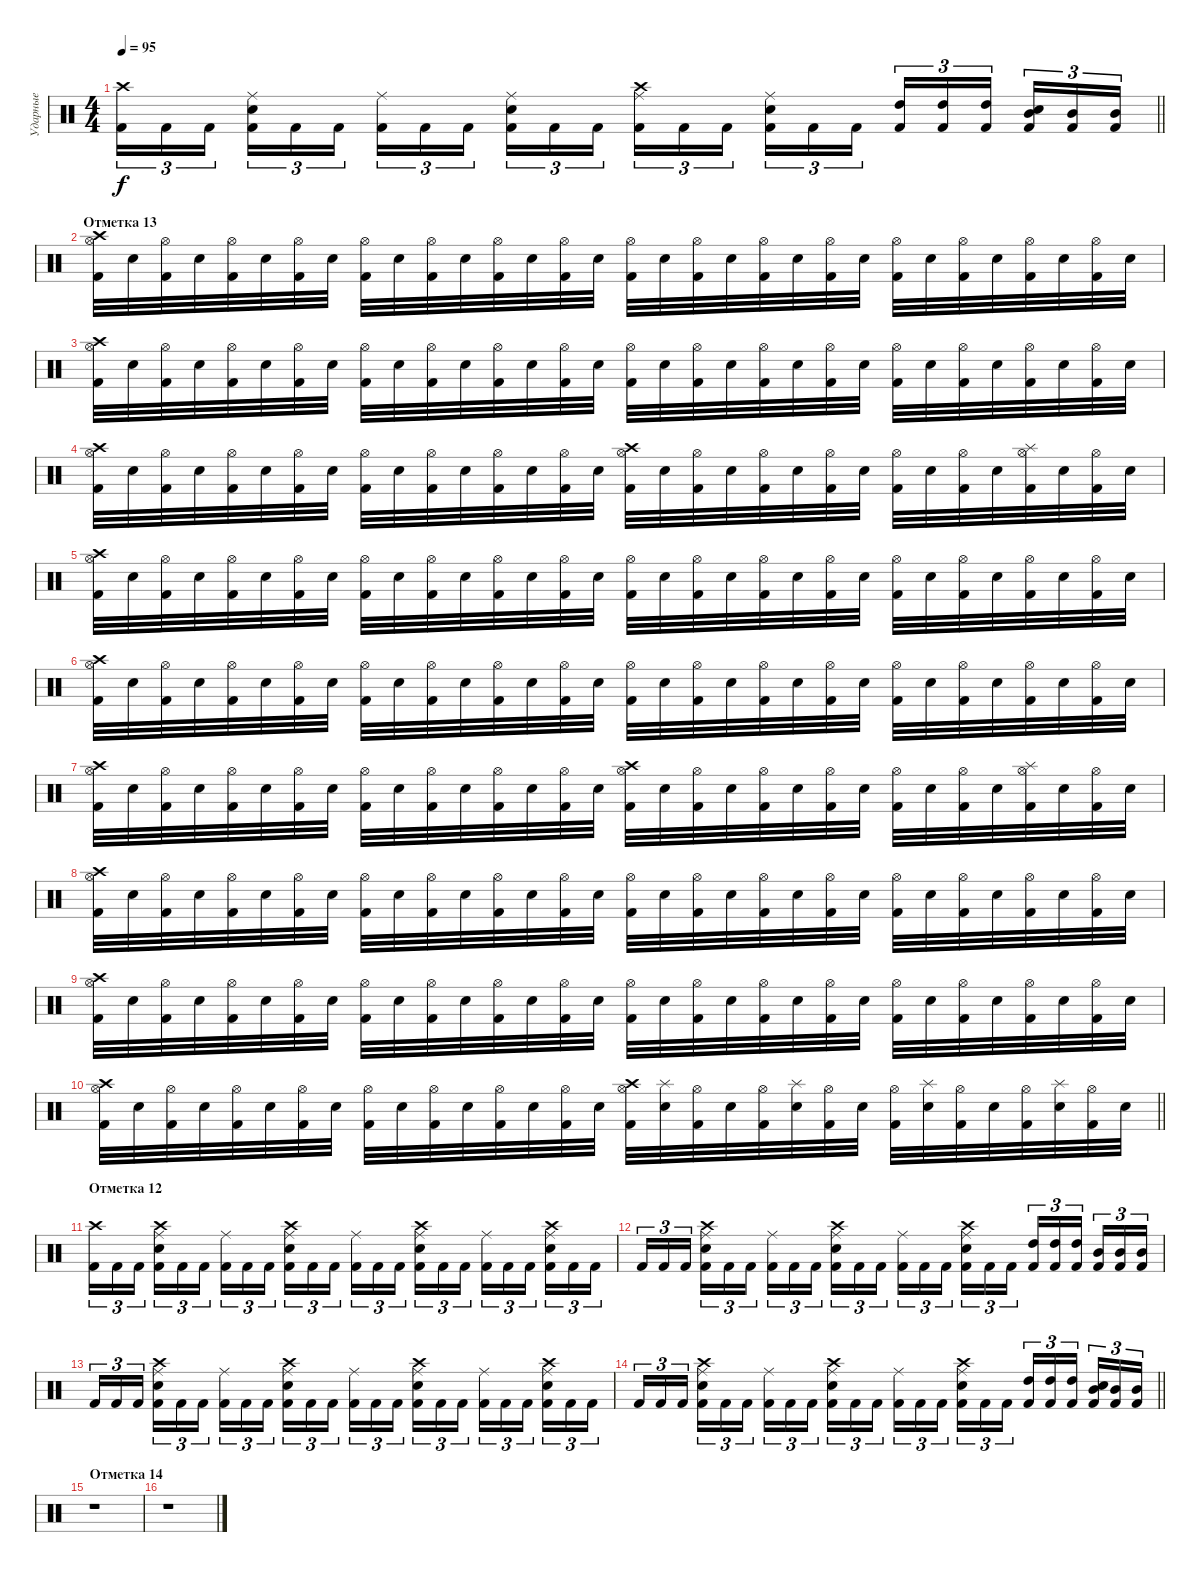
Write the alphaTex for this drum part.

\track ("Ударные" "Ударные") {instrument percussion}
\staff {score}
\articulation defaults
\ts (4 4)
\tempo 95
\clef neutral
\barLineRight lightlight
\ks c
("Kick (hit) 2" "Crash high (hit)").16{tu (3 2) dy f} "Kick (hit) 2".16{tu (3 2)} "Kick (hit) 2".16{tu (3 2) beam splitsecondary} ("Electric Snare (hit)" "Kick (hit) 2" "Ride (middle)").16{tu (3 2)} "Kick (hit) 2".16{tu (3 2)} "Kick (hit) 2".16{tu (3 2)} ("Kick (hit) 2" "Ride (middle)").16{tu (3 2)} "Kick (hit) 2".16{tu (3 2)} "Kick (hit) 2".16{tu (3 2) beam splitsecondary} ("Electric Snare (hit)" "Kick (hit) 2" "Ride (middle)").16{tu (3 2)} "Kick (hit) 2".16{tu (3 2)} "Kick (hit) 2".16{tu (3 2)} ("Kick (hit) 2" "Ride (middle)" "Crash high (hit)").16{tu (3 2)} "Kick (hit) 2".16{tu (3 2)} "Kick (hit) 2".16{tu (3 2) beam splitsecondary} ("Electric Snare (hit)" "Kick (hit) 2" "Ride (middle)").16{tu (3 2)} "Kick (hit) 2".16{tu (3 2)} "Kick (hit) 2".16{tu (3 2)} ("Kick (hit) 2" "High Tom (hit)").16{tu (3 2)} ("Kick (hit) 2" "High Tom (hit)").16{tu (3 2)} ("Kick (hit) 2" "High Tom (hit)").16{tu (3 2) beam splitsecondary} ("Electric Snare (hit)" "Kick (hit) 2" "Mid Tom (hit)").16{tu (3 2)} ("Kick (hit) 2" "Mid Tom (hit)").16{tu (3 2)} ("Kick (hit) 2" "Mid Tom (hit)").16{tu (3 2)} |
\section ("" "Отметка 13")
("Kick (hit) 2" "Crash high (hit)" "Hi-Hat (open)").32 "Electric Snare (hit)".32 ("Kick (hit) 2" "Hi-Hat (open)").32 "Electric Snare (hit)".32 ("Kick (hit) 2" "Hi-Hat (open)").32 "Electric Snare (hit)".32 ("Kick (hit) 2" "Hi-Hat (open)").32 "Electric Snare (hit)".32 ("Kick (hit) 2" "Hi-Hat (open)").32 "Electric Snare (hit)".32 ("Kick (hit) 2" "Hi-Hat (open)").32 "Electric Snare (hit)".32 ("Kick (hit) 2" "Hi-Hat (open)").32 "Electric Snare (hit)".32 ("Kick (hit) 2" "Hi-Hat (open)").32 "Electric Snare (hit)".32 ("Kick (hit) 2" "Hi-Hat (open)").32 "Electric Snare (hit)".32 ("Kick (hit) 2" "Hi-Hat (open)").32 "Electric Snare (hit)".32 ("Kick (hit) 2" "Hi-Hat (open)").32 "Electric Snare (hit)".32 ("Kick (hit) 2" "Hi-Hat (open)").32 "Electric Snare (hit)".32 ("Kick (hit) 2" "Hi-Hat (open)").32 "Electric Snare (hit)".32 ("Kick (hit) 2" "Hi-Hat (open)").32 "Electric Snare (hit)".32 ("Kick (hit) 2" "Hi-Hat (open)").32 "Electric Snare (hit)".32 ("Kick (hit) 2" "Hi-Hat (open)").32 "Electric Snare (hit)".32 |
("Kick (hit) 2" "Crash high (hit)" "Hi-Hat (open)").32 "Electric Snare (hit)".32 ("Kick (hit) 2" "Hi-Hat (open)").32 "Electric Snare (hit)".32 ("Kick (hit) 2" "Hi-Hat (open)").32 "Electric Snare (hit)".32 ("Kick (hit) 2" "Hi-Hat (open)").32 "Electric Snare (hit)".32 ("Kick (hit) 2" "Hi-Hat (open)").32 "Electric Snare (hit)".32 ("Kick (hit) 2" "Hi-Hat (open)").32 "Electric Snare (hit)".32 ("Kick (hit) 2" "Hi-Hat (open)").32 "Electric Snare (hit)".32 ("Kick (hit) 2" "Hi-Hat (open)").32 "Electric Snare (hit)".32 ("Kick (hit) 2" "Hi-Hat (open)").32 "Electric Snare (hit)".32 ("Kick (hit) 2" "Hi-Hat (open)").32 "Electric Snare (hit)".32 ("Kick (hit) 2" "Hi-Hat (open)").32 "Electric Snare (hit)".32 ("Kick (hit) 2" "Hi-Hat (open)").32 "Electric Snare (hit)".32 ("Kick (hit) 2" "Hi-Hat (open)").32 "Electric Snare (hit)".32 ("Kick (hit) 2" "Hi-Hat (open)").32 "Electric Snare (hit)".32 ("Kick (hit) 2" "Hi-Hat (open)").32 "Electric Snare (hit)".32 ("Kick (hit) 2" "Hi-Hat (open)").32 "Electric Snare (hit)".32 |
("Kick (hit) 2" "Crash high (hit)" "Hi-Hat (open)").32 "Electric Snare (hit)".32 ("Kick (hit) 2" "Hi-Hat (open)").32 "Electric Snare (hit)".32 ("Kick (hit) 2" "Hi-Hat (open)").32 "Electric Snare (hit)".32 ("Kick (hit) 2" "Hi-Hat (open)").32 "Electric Snare (hit)".32 ("Kick (hit) 2" "Hi-Hat (open)").32 "Electric Snare (hit)".32 ("Kick (hit) 2" "Hi-Hat (open)").32 "Electric Snare (hit)".32 ("Kick (hit) 2" "Hi-Hat (open)").32 "Electric Snare (hit)".32 ("Kick (hit) 2" "Hi-Hat (open)").32 "Electric Snare (hit)".32 ("Kick (hit) 2" "Crash high (hit)" "Hi-Hat (open)").32 "Electric Snare (hit)".32 ("Kick (hit) 2" "Hi-Hat (open)").32 "Electric Snare (hit)".32 ("Kick (hit) 2" "Hi-Hat (open)").32 "Electric Snare (hit)".32 ("Kick (hit) 2" "Hi-Hat (open)").32 "Electric Snare (hit)".32 ("Kick (hit) 2" "Hi-Hat (open)").32 "Electric Snare (hit)".32 ("Kick (hit) 2" "Hi-Hat (open)").32 "Electric Snare (hit)".32 ("Kick (hit) 2" "Splash (hit)" "Hi-Hat (open)").32 "Electric Snare (hit)".32 ("Kick (hit) 2" "Hi-Hat (open)").32 "Electric Snare (hit)".32 |
("Kick (hit) 2" "Crash high (hit)" "Hi-Hat (open)").32 "Electric Snare (hit)".32 ("Kick (hit) 2" "Hi-Hat (open)").32 "Electric Snare (hit)".32 ("Kick (hit) 2" "Hi-Hat (open)").32 "Electric Snare (hit)".32 ("Kick (hit) 2" "Hi-Hat (open)").32 "Electric Snare (hit)".32 ("Kick (hit) 2" "Hi-Hat (open)").32 "Electric Snare (hit)".32 ("Kick (hit) 2" "Hi-Hat (open)").32 "Electric Snare (hit)".32 ("Kick (hit) 2" "Hi-Hat (open)").32 "Electric Snare (hit)".32 ("Kick (hit) 2" "Hi-Hat (open)").32 "Electric Snare (hit)".32 ("Kick (hit) 2" "Hi-Hat (open)").32 "Electric Snare (hit)".32 ("Kick (hit) 2" "Hi-Hat (open)").32 "Electric Snare (hit)".32 ("Kick (hit) 2" "Hi-Hat (open)").32 "Electric Snare (hit)".32 ("Kick (hit) 2" "Hi-Hat (open)").32 "Electric Snare (hit)".32 ("Kick (hit) 2" "Hi-Hat (open)").32 "Electric Snare (hit)".32 ("Kick (hit) 2" "Hi-Hat (open)").32 "Electric Snare (hit)".32 ("Kick (hit) 2" "Hi-Hat (open)").32 "Electric Snare (hit)".32 ("Kick (hit) 2" "Hi-Hat (open)").32 "Electric Snare (hit)".32 |
("Kick (hit) 2" "Crash high (hit)" "Hi-Hat (open)").32 "Electric Snare (hit)".32 ("Kick (hit) 2" "Hi-Hat (open)").32 "Electric Snare (hit)".32 ("Kick (hit) 2" "Hi-Hat (open)").32 "Electric Snare (hit)".32 ("Kick (hit) 2" "Hi-Hat (open)").32 "Electric Snare (hit)".32 ("Kick (hit) 2" "Hi-Hat (open)").32 "Electric Snare (hit)".32 ("Kick (hit) 2" "Hi-Hat (open)").32 "Electric Snare (hit)".32 ("Kick (hit) 2" "Hi-Hat (open)").32 "Electric Snare (hit)".32 ("Kick (hit) 2" "Hi-Hat (open)").32 "Electric Snare (hit)".32 ("Kick (hit) 2" "Hi-Hat (open)").32 "Electric Snare (hit)".32 ("Kick (hit) 2" "Hi-Hat (open)").32 "Electric Snare (hit)".32 ("Kick (hit) 2" "Hi-Hat (open)").32 "Electric Snare (hit)".32 ("Kick (hit) 2" "Hi-Hat (open)").32 "Electric Snare (hit)".32 ("Kick (hit) 2" "Hi-Hat (open)").32 "Electric Snare (hit)".32 ("Kick (hit) 2" "Hi-Hat (open)").32 "Electric Snare (hit)".32 ("Kick (hit) 2" "Hi-Hat (open)").32 "Electric Snare (hit)".32 ("Kick (hit) 2" "Hi-Hat (open)").32 "Electric Snare (hit)".32 |
("Kick (hit) 2" "Crash high (hit)" "Hi-Hat (open)").32 "Electric Snare (hit)".32 ("Kick (hit) 2" "Hi-Hat (open)").32 "Electric Snare (hit)".32 ("Kick (hit) 2" "Hi-Hat (open)").32 "Electric Snare (hit)".32 ("Kick (hit) 2" "Hi-Hat (open)").32 "Electric Snare (hit)".32 ("Kick (hit) 2" "Hi-Hat (open)").32 "Electric Snare (hit)".32 ("Kick (hit) 2" "Hi-Hat (open)").32 "Electric Snare (hit)".32 ("Kick (hit) 2" "Hi-Hat (open)").32 "Electric Snare (hit)".32 ("Kick (hit) 2" "Hi-Hat (open)").32 "Electric Snare (hit)".32 ("Kick (hit) 2" "Crash high (hit)" "Hi-Hat (open)").32 "Electric Snare (hit)".32 ("Kick (hit) 2" "Hi-Hat (open)").32 "Electric Snare (hit)".32 ("Kick (hit) 2" "Hi-Hat (open)").32 "Electric Snare (hit)".32 ("Kick (hit) 2" "Hi-Hat (open)").32 "Electric Snare (hit)".32 ("Kick (hit) 2" "Hi-Hat (open)").32 "Electric Snare (hit)".32 ("Kick (hit) 2" "Hi-Hat (open)").32 "Electric Snare (hit)".32 ("Kick (hit) 2" "Splash (hit)" "Hi-Hat (open)").32 "Electric Snare (hit)".32 ("Kick (hit) 2" "Hi-Hat (open)").32 "Electric Snare (hit)".32 |
("Kick (hit) 2" "Crash high (hit)" "Hi-Hat (open)").32 "Electric Snare (hit)".32 ("Kick (hit) 2" "Hi-Hat (open)").32 "Electric Snare (hit)".32 ("Kick (hit) 2" "Hi-Hat (open)").32 "Electric Snare (hit)".32 ("Kick (hit) 2" "Hi-Hat (open)").32 "Electric Snare (hit)".32 ("Kick (hit) 2" "Hi-Hat (open)").32 "Electric Snare (hit)".32 ("Kick (hit) 2" "Hi-Hat (open)").32 "Electric Snare (hit)".32 ("Kick (hit) 2" "Hi-Hat (open)").32 "Electric Snare (hit)".32 ("Kick (hit) 2" "Hi-Hat (open)").32 "Electric Snare (hit)".32 ("Kick (hit) 2" "Hi-Hat (open)").32 "Electric Snare (hit)".32 ("Kick (hit) 2" "Hi-Hat (open)").32 "Electric Snare (hit)".32 ("Kick (hit) 2" "Hi-Hat (open)").32 "Electric Snare (hit)".32 ("Kick (hit) 2" "Hi-Hat (open)").32 "Electric Snare (hit)".32 ("Kick (hit) 2" "Hi-Hat (open)").32 "Electric Snare (hit)".32 ("Kick (hit) 2" "Hi-Hat (open)").32 "Electric Snare (hit)".32 ("Kick (hit) 2" "Hi-Hat (open)").32 "Electric Snare (hit)".32 ("Kick (hit) 2" "Hi-Hat (open)").32 "Electric Snare (hit)".32 |
("Kick (hit) 2" "Crash high (hit)" "Hi-Hat (open)").32 "Electric Snare (hit)".32 ("Kick (hit) 2" "Hi-Hat (open)").32 "Electric Snare (hit)".32 ("Kick (hit) 2" "Hi-Hat (open)").32 "Electric Snare (hit)".32 ("Kick (hit) 2" "Hi-Hat (open)").32 "Electric Snare (hit)".32 ("Kick (hit) 2" "Hi-Hat (open)").32 "Electric Snare (hit)".32 ("Kick (hit) 2" "Hi-Hat (open)").32 "Electric Snare (hit)".32 ("Kick (hit) 2" "Hi-Hat (open)").32 "Electric Snare (hit)".32 ("Kick (hit) 2" "Hi-Hat (open)").32 "Electric Snare (hit)".32 ("Kick (hit) 2" "Hi-Hat (open)").32 "Electric Snare (hit)".32 ("Kick (hit) 2" "Hi-Hat (open)").32 "Electric Snare (hit)".32 ("Kick (hit) 2" "Hi-Hat (open)").32 "Electric Snare (hit)".32 ("Kick (hit) 2" "Hi-Hat (open)").32 "Electric Snare (hit)".32 ("Kick (hit) 2" "Hi-Hat (open)").32 "Electric Snare (hit)".32 ("Kick (hit) 2" "Hi-Hat (open)").32 "Electric Snare (hit)".32 ("Kick (hit) 2" "Hi-Hat (open)").32 "Electric Snare (hit)".32 ("Kick (hit) 2" "Hi-Hat (open)").32 "Electric Snare (hit)".32 |
\barLineRight lightlight
("Kick (hit) 2" "Crash high (hit)" "Hi-Hat (open)").32 "Electric Snare (hit)".32 ("Kick (hit) 2" "Hi-Hat (open)").32 "Electric Snare (hit)".32 ("Kick (hit) 2" "Hi-Hat (open)").32 "Electric Snare (hit)".32 ("Kick (hit) 2" "Hi-Hat (open)").32 "Electric Snare (hit)".32 ("Kick (hit) 2" "Hi-Hat (open)").32 "Electric Snare (hit)".32 ("Kick (hit) 2" "Hi-Hat (open)").32 "Electric Snare (hit)".32 ("Kick (hit) 2" "Hi-Hat (open)").32 "Electric Snare (hit)".32 ("Kick (hit) 2" "Hi-Hat (open)").32 "Electric Snare (hit)".32 ("Kick (hit) 2" "Crash high (hit)" "Hi-Hat (open)").32 ("Electric Snare (hit)" "Splash (hit)").32 ("Kick (hit) 2" "Hi-Hat (open)").32 "Electric Snare (hit)".32 ("Kick (hit) 2" "Hi-Hat (open)").32 ("Electric Snare (hit)" "Splash (hit)").32 ("Kick (hit) 2" "Hi-Hat (open)").32 "Electric Snare (hit)".32 ("Kick (hit) 2" "Hi-Hat (open)").32 ("Electric Snare (hit)" "Splash (hit)").32 ("Kick (hit) 2" "Hi-Hat (open)").32 "Electric Snare (hit)".32 ("Kick (hit) 2" "Hi-Hat (open)").32 ("Electric Snare (hit)" "Splash (hit)").32 ("Kick (hit) 2" "Hi-Hat (open)").32 "Electric Snare (hit)".32 |
\section ("" "Отметка 12")
("Kick (hit) 2" "Crash high (hit)").16{tu (3 2)} "Kick (hit) 2".16{tu (3 2)} "Kick (hit) 2".16{tu (3 2) beam splitsecondary} ("Electric Snare (hit)" "Kick (hit) 2" "Ride (middle)" "Crash high (hit)").16{tu (3 2)} "Kick (hit) 2".16{tu (3 2)} "Kick (hit) 2".16{tu (3 2)} ("Kick (hit) 2" "Ride (middle)").16{tu (3 2)} "Kick (hit) 2".16{tu (3 2)} "Kick (hit) 2".16{tu (3 2) beam splitsecondary} ("Electric Snare (hit)" "Kick (hit) 2" "Ride (middle)" "Crash high (hit)").16{tu (3 2)} "Kick (hit) 2".16{tu (3 2)} "Kick (hit) 2".16{tu (3 2)} ("Kick (hit) 2" "Ride (middle)").16{tu (3 2)} "Kick (hit) 2".16{tu (3 2)} "Kick (hit) 2".16{tu (3 2) beam splitsecondary} ("Electric Snare (hit)" "Kick (hit) 2" "Ride (middle)" "Crash high (hit)").16{tu (3 2)} "Kick (hit) 2".16{tu (3 2)} "Kick (hit) 2".16{tu (3 2)} ("Kick (hit) 2" "Ride (middle)").16{tu (3 2)} "Kick (hit) 2".16{tu (3 2)} "Kick (hit) 2".16{tu (3 2) beam splitsecondary} ("Electric Snare (hit)" "Kick (hit) 2" "Ride (middle)" "Crash high (hit)").16{tu (3 2)} "Kick (hit) 2".16{tu (3 2)} "Kick (hit) 2".16{tu (3 2)} |
"Kick (hit) 2".16{tu (3 2)} "Kick (hit) 2".16{tu (3 2)} "Kick (hit) 2".16{tu (3 2) beam splitsecondary} ("Electric Snare (hit)" "Kick (hit) 2" "Ride (middle)" "Crash high (hit)").16{tu (3 2)} "Kick (hit) 2".16{tu (3 2)} "Kick (hit) 2".16{tu (3 2)} ("Kick (hit) 2" "Ride (middle)").16{tu (3 2)} "Kick (hit) 2".16{tu (3 2)} "Kick (hit) 2".16{tu (3 2) beam splitsecondary} ("Electric Snare (hit)" "Kick (hit) 2" "Ride (middle)" "Crash high (hit)").16{tu (3 2)} "Kick (hit) 2".16{tu (3 2)} "Kick (hit) 2".16{tu (3 2)} ("Kick (hit) 2" "Ride (middle)").16{tu (3 2)} "Kick (hit) 2".16{tu (3 2)} "Kick (hit) 2".16{tu (3 2) beam splitsecondary} ("Electric Snare (hit)" "Kick (hit) 2" "Ride (middle)" "Crash high (hit)").16{tu (3 2)} "Kick (hit) 2".16{tu (3 2)} "Kick (hit) 2".16{tu (3 2)} ("Kick (hit) 2" "High Tom (hit)").16{tu (3 2)} ("Kick (hit) 2" "High Tom (hit)").16{tu (3 2)} ("Kick (hit) 2" "High Tom (hit)").16{tu (3 2) beam splitsecondary} ("Kick (hit) 2" "Mid Tom (hit)").16{tu (3 2)} ("Kick (hit) 2" "Mid Tom (hit)").16{tu (3 2)} ("Kick (hit) 2" "Mid Tom (hit)").16{tu (3 2)} |
"Kick (hit) 2".16{tu (3 2)} "Kick (hit) 2".16{tu (3 2)} "Kick (hit) 2".16{tu (3 2) beam splitsecondary} ("Electric Snare (hit)" "Kick (hit) 2" "Ride (middle)" "Crash high (hit)").16{tu (3 2)} "Kick (hit) 2".16{tu (3 2)} "Kick (hit) 2".16{tu (3 2)} ("Kick (hit) 2" "Ride (middle)").16{tu (3 2)} "Kick (hit) 2".16{tu (3 2)} "Kick (hit) 2".16{tu (3 2) beam splitsecondary} ("Electric Snare (hit)" "Kick (hit) 2" "Ride (middle)" "Crash high (hit)").16{tu (3 2)} "Kick (hit) 2".16{tu (3 2)} "Kick (hit) 2".16{tu (3 2)} ("Kick (hit) 2" "Ride (middle)").16{tu (3 2)} "Kick (hit) 2".16{tu (3 2)} "Kick (hit) 2".16{tu (3 2) beam splitsecondary} ("Electric Snare (hit)" "Kick (hit) 2" "Ride (middle)" "Crash high (hit)").16{tu (3 2)} "Kick (hit) 2".16{tu (3 2)} "Kick (hit) 2".16{tu (3 2)} ("Kick (hit) 2" "Ride (middle)").16{tu (3 2)} "Kick (hit) 2".16{tu (3 2)} "Kick (hit) 2".16{tu (3 2) beam splitsecondary} ("Electric Snare (hit)" "Kick (hit) 2" "Ride (middle)" "Crash high (hit)").16{tu (3 2)} "Kick (hit) 2".16{tu (3 2)} "Kick (hit) 2".16{tu (3 2)} |
\barLineRight lightlight "Kick (hit) 2".16{tu (3 2)} "Kick (hit) 2".16{tu (3 2)} "Kick (hit) 2".16{tu (3 2) beam splitsecondary}
("Electric Snare (hit)" "Kick (hit) 2" "Ride (middle)" "Crash high (hit)").16{tu (3 2)} "Kick (hit) 2".16{tu (3 2)} "Kick (hit) 2".16{tu (3 2)} ("Kick (hit) 2" "Ride (middle)").16{tu (3 2)} "Kick (hit) 2".16{tu (3 2)} "Kick (hit) 2".16{tu (3 2) beam splitsecondary} ("Electric Snare (hit)" "Kick (hit) 2" "Ride (middle)" "Crash high (hit)").16{tu (3 2)} "Kick (hit) 2".16{tu (3 2)} "Kick (hit) 2".16{tu (3 2)} ("Kick (hit) 2" "Ride (middle)").16{tu (3 2)} "Kick (hit) 2".16{tu (3 2)} "Kick (hit) 2".16{tu (3 2) beam splitsecondary} ("Electric Snare (hit)" "Kick (hit) 2" "Ride (middle)" "Crash high (hit)").16{tu (3 2)} "Kick (hit) 2".16{tu (3 2)} "Kick (hit) 2".16{tu (3 2)} ("Kick (hit) 2" "High Tom (hit)").16{tu (3 2)} ("Kick (hit) 2" "High Tom (hit)").16{tu (3 2)} ("Kick (hit) 2" "High Tom (hit)").16{tu (3 2) beam splitsecondary} ("Electric Snare (hit)" "Kick (hit) 2" "Mid Tom (hit)").16{tu (3 2)} ("Kick (hit) 2" "Mid Tom (hit)").16{tu (3 2)} ("Kick (hit) 2" "Mid Tom (hit)").16{tu (3 2)} |
\section ("" "Отметка 14")
r.1 |
r.1
